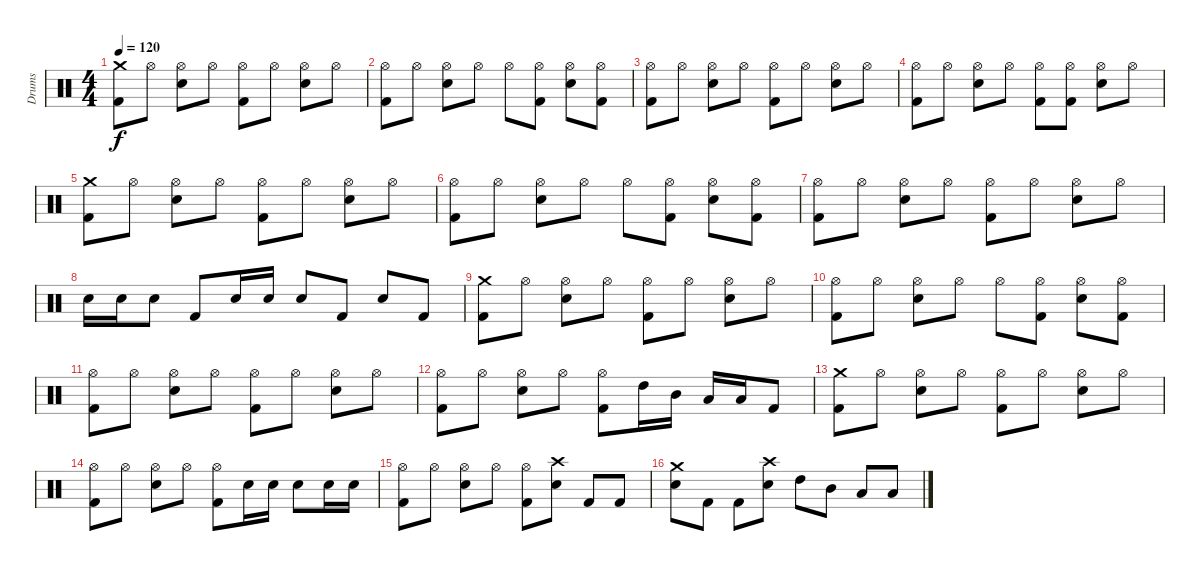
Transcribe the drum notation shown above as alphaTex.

\track ("Drums" "Drums") {instrument percussion}
\staff {score}
\articulation defaults
\ts (4 4)
\tempo 120
\clef neutral
\ks c
("Crash medium (hit)" "Kick (hit) 2").8{dy f} "Hi-Hat (open)".8 ("Hi-Hat (open)" "Electric Snare (hit)").8 "Hi-Hat (open)".8 ("Hi-Hat (open)" "Kick (hit) 2").8 "Hi-Hat (open)".8 ("Hi-Hat (open)" "Electric Snare (hit)").8 "Hi-Hat (open)".8 |
("Hi-Hat (open)" "Kick (hit) 2").8 "Hi-Hat (open)".8 ("Hi-Hat (open)" "Electric Snare (hit)").8 "Hi-Hat (open)".8 "Hi-Hat (open)".8 ("Hi-Hat (open)" "Kick (hit) 2").8 ("Hi-Hat (open)" "Electric Snare (hit)").8 ("Hi-Hat (open)" "Kick (hit) 2").8 |
("Hi-Hat (open)" "Kick (hit) 2").8 "Hi-Hat (open)".8 ("Hi-Hat (open)" "Electric Snare (hit)").8 "Hi-Hat (open)".8 ("Hi-Hat (open)" "Kick (hit) 2").8 "Hi-Hat (open)".8 ("Hi-Hat (open)" "Electric Snare (hit)").8 "Hi-Hat (open)".8 |
("Hi-Hat (open)" "Kick (hit) 2").8 "Hi-Hat (open)".8 ("Hi-Hat (open)" "Electric Snare (hit)").8 "Hi-Hat (open)".8 ("Hi-Hat (open)" "Kick (hit) 2").8 ("Hi-Hat (open)" "Kick (hit) 2").8 ("Hi-Hat (open)" "Electric Snare (hit)").8 "Hi-Hat (open)".8 |
("Crash medium (hit)" "Kick (hit) 2").8 "Hi-Hat (open)".8 ("Hi-Hat (open)" "Electric Snare (hit)").8 "Hi-Hat (open)".8 ("Hi-Hat (open)" "Kick (hit) 2").8 "Hi-Hat (open)".8 ("Hi-Hat (open)" "Electric Snare (hit)").8 "Hi-Hat (open)".8 |
("Hi-Hat (open)" "Kick (hit) 2").8 "Hi-Hat (open)".8 ("Hi-Hat (open)" "Electric Snare (hit)").8 "Hi-Hat (open)".8 "Hi-Hat (open)".8 ("Hi-Hat (open)" "Kick (hit) 2").8 ("Hi-Hat (open)" "Electric Snare (hit)").8 ("Hi-Hat (open)" "Kick (hit) 2").8 |
("Hi-Hat (open)" "Kick (hit) 2").8 "Hi-Hat (open)".8 ("Hi-Hat (open)" "Electric Snare (hit)").8 "Hi-Hat (open)".8 ("Hi-Hat (open)" "Kick (hit) 2").8 "Hi-Hat (open)".8 ("Hi-Hat (open)" "Electric Snare (hit)").8 "Hi-Hat (open)".8 |
"Electric Snare (hit)".16 "Electric Snare (hit)".16 "Electric Snare (hit)".8 "Kick (hit) 2".8 "Electric Snare (hit)".16 "Electric Snare (hit)".16 "Electric Snare (hit)".8 "Kick (hit) 2".8 "Electric Snare (hit)".8 "Kick (hit) 2".8 |
("Crash medium (hit)" "Kick (hit) 2").8 "Hi-Hat (open)".8 ("Hi-Hat (open)" "Electric Snare (hit)").8 "Hi-Hat (open)".8 ("Hi-Hat (open)" "Kick (hit) 2").8 "Hi-Hat (open)".8 ("Hi-Hat (open)" "Electric Snare (hit)").8 "Hi-Hat (open)".8 |
("Hi-Hat (open)" "Kick (hit) 2").8 "Hi-Hat (open)".8 ("Hi-Hat (open)" "Electric Snare (hit)").8 "Hi-Hat (open)".8 "Hi-Hat (open)".8 ("Hi-Hat (open)" "Kick (hit) 2").8 ("Hi-Hat (open)" "Electric Snare (hit)").8 ("Hi-Hat (open)" "Kick (hit) 2").8 |
("Hi-Hat (open)" "Kick (hit) 2").8 "Hi-Hat (open)".8 ("Hi-Hat (open)" "Electric Snare (hit)").8 "Hi-Hat (open)".8 ("Hi-Hat (open)" "Kick (hit) 2").8 "Hi-Hat (open)".8 ("Hi-Hat (open)" "Electric Snare (hit)").8 "Hi-Hat (open)".8 |
("Hi-Hat (open)" "Kick (hit) 2").8 "Hi-Hat (open)".8 ("Hi-Hat (open)" "Electric Snare (hit)").8 "Hi-Hat (open)".8 ("Hi-Hat (open)" "Kick (hit) 2").8 "High Tom (hit)".16 "Mid Tom (hit)".16 "Low Tom (hit)".16 "Low Floor Tom (hit)".16 "Kick (hit) 2".8 |
("Crash medium (hit)" "Kick (hit) 2").8 "Hi-Hat (open)".8 ("Hi-Hat (open)" "Electric Snare (hit)").8 "Hi-Hat (open)".8 ("Hi-Hat (open)" "Kick (hit) 2").8 "Hi-Hat (open)".8 ("Hi-Hat (open)" "Electric Snare (hit)").8 "Hi-Hat (open)".8 |
("Hi-Hat (open)" "Kick (hit) 2").8 "Hi-Hat (open)".8 ("Hi-Hat (open)" "Electric Snare (hit)").8 "Hi-Hat (open)".8 ("Hi-Hat (open)" "Kick (hit) 2").8 "Electric Snare (hit)".16 "Electric Snare (hit)".16 "Electric Snare (hit)".8 "Electric Snare (hit)".16 "Electric Snare (hit)".16 |
("Hi-Hat (open)" "Kick (hit) 2").8 "Hi-Hat (open)".8 ("Hi-Hat (open)" "Electric Snare (hit)").8 "Hi-Hat (open)".8 ("Hi-Hat (open)" "Kick (hit) 2").8 ("Crash high (hit)" "Electric Snare (hit)").8 "Kick (hit) 2".8 "Kick (hit) 2".8 |
("Crash medium (hit)" "Electric Snare (hit)").8 "Kick (hit) 2".8 "Kick (hit) 2".8 ("Crash high (hit)" "Electric Snare (hit)").8 "High Tom (hit)".8 "Mid Tom (hit)".8 "Low Tom (hit)".8 "Low Floor Tom (hit)".8
